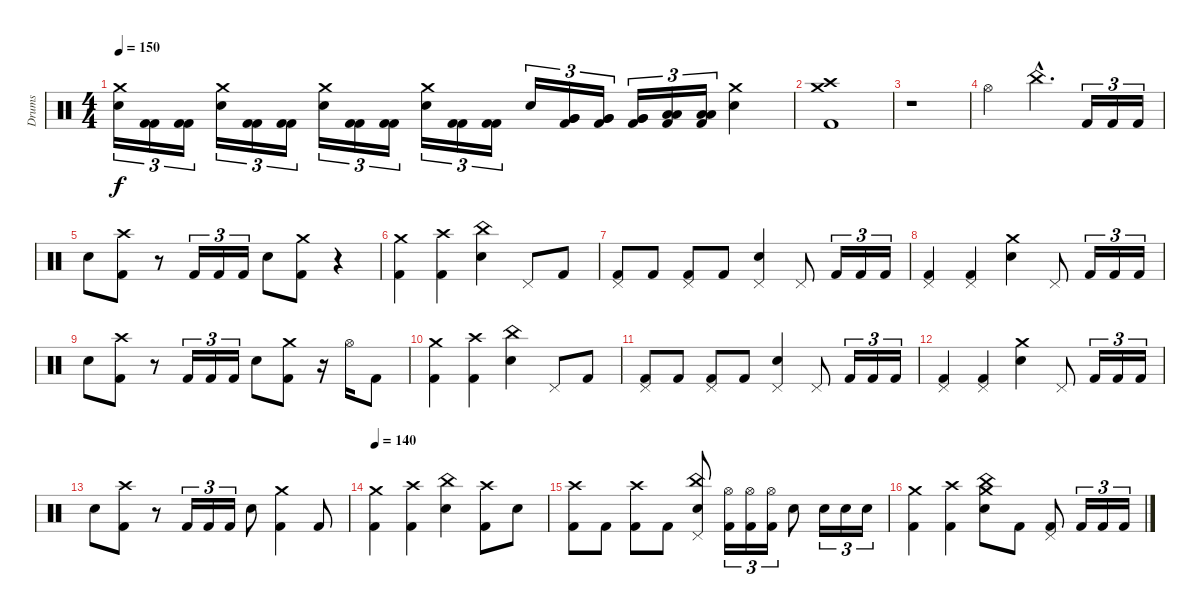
\track ("Drums" "Drums") {instrument percussion}
\staff {score}
\articulation defaults
\ts (4 4)
\tempo 150
\clef neutral
\ks c
("Crash medium (hit)" "Electric Snare (hit)").16{tu (3 2) dy f} ("Kick (hit) 2" "Kick (hit) 2").16{tu (3 2)} ("Kick (hit) 2" "Kick (hit) 2").16{tu (3 2)} ("Crash medium (hit)" "Electric Snare (hit)").16{tu (3 2)} ("Kick (hit) 2" "Kick (hit) 2").16{tu (3 2)} ("Kick (hit) 2" "Kick (hit) 2").16{tu (3 2)} ("Crash medium (hit)" "Electric Snare (hit)").16{tu (3 2)} ("Kick (hit) 2" "Kick (hit) 2").16{tu (3 2)} ("Kick (hit) 2" "Kick (hit) 2").16{tu (3 2)} ("Crash medium (hit)" "Electric Snare (hit)").16{tu (3 2)} ("Kick (hit) 2" "Kick (hit) 2").16{tu (3 2)} ("Kick (hit) 2" "Kick (hit) 2").16{tu (3 2)} "Electric Snare (hit)".16{tu (3 2)} ("Very Low Tom (hit)" "Very Low Tom (hit)" "Kick (hit) 2").16{tu (3 2)} ("Very Low Tom (hit)" "Very Low Tom (hit)" "Kick (hit) 2").16{tu (3 2)} ("Very Low Tom (hit)" "Very Low Tom (hit)" "Kick (hit) 2").16{tu (3 2)} ("Low Tom (hit)" "Low Tom (hit)" "Kick (hit) 2").16{tu (3 2)} ("Low Tom (hit)" "Low Tom (hit)" "Kick (hit) 2").16{tu (3 2)} ("Crash medium (hit)" "Electric Snare (hit)").4 |
("Crash high (hit)" "Crash medium (hit)" "Kick (hit) 2").1 |
r.1 |
"Hi-Hat (open)".2 "China (hit)"{hac}.4{d} "Kick (hit) 2".16{tu (3 2)} "Kick (hit) 2".16{tu (3 2)} "Kick (hit) 2".16{tu (3 2)} |
"Electric Snare (hit)".8 ("Crash high (hit)" "Kick (hit) 2").8 r.8 "Kick (hit) 2".16{tu (3 2)} "Kick (hit) 2".16{tu (3 2)} "Kick (hit) 2".16{tu (3 2)} "Electric Snare (hit)".8 ("Crash medium (hit)" "Kick (hit) 2").8 r.4 |
("Crash medium (hit)" "Kick (hit) 2").4 ("Crash high (hit)" "Kick (hit) 2").4 ("China (hit)" "Electric Snare (hit)").4 "Pedal Hi-Hat (hit)".8 "Kick (hit) 2".8 |
("Pedal Hi-Hat (hit)" "Kick (hit) 2").8 "Kick (hit) 2".8 ("Pedal Hi-Hat (hit)" "Kick (hit) 2").8 "Kick (hit) 2".8 ("Pedal Hi-Hat (hit)" "Electric Snare (hit)").4 "Pedal Hi-Hat (hit)".8 "Kick (hit) 2".16{tu (3 2)} "Kick (hit) 2".16{tu (3 2)} "Kick (hit) 2".16{tu (3 2)} |
("Pedal Hi-Hat (hit)" "Kick (hit) 2").4 ("Pedal Hi-Hat (hit)" "Kick (hit) 2").4 ("Crash medium (hit)" "Electric Snare (hit)").4 "Pedal Hi-Hat (hit)".8 "Kick (hit) 2".16{tu (3 2)} "Kick (hit) 2".16{tu (3 2)} "Kick (hit) 2".16{tu (3 2)} |
"Electric Snare (hit)".8 ("Crash high (hit)" "Kick (hit) 2").8 r.8 "Kick (hit) 2".16{tu (3 2)} "Kick (hit) 2".16{tu (3 2)} "Kick (hit) 2".16{tu (3 2)} "Electric Snare (hit)".8 ("Crash medium (hit)" "Kick (hit) 2").8 r.16 "Hi-Hat (open)".16 "Kick (hit) 2".8 |
("Crash medium (hit)" "Kick (hit) 2").4 ("Crash high (hit)" "Kick (hit) 2").4 ("China (hit)" "Electric Snare (hit)").4 "Pedal Hi-Hat (hit)".8 "Kick (hit) 2".8 |
("Pedal Hi-Hat (hit)" "Kick (hit) 2").8 "Kick (hit) 2".8 ("Pedal Hi-Hat (hit)" "Kick (hit) 2").8 "Kick (hit) 2".8 ("Pedal Hi-Hat (hit)" "Electric Snare (hit)").4 "Pedal Hi-Hat (hit)".8 "Kick (hit) 2".16{tu (3 2)} "Kick (hit) 2".16{tu (3 2)} "Kick (hit) 2".16{tu (3 2)} |
("Pedal Hi-Hat (hit)" "Kick (hit) 2").4 ("Pedal Hi-Hat (hit)" "Kick (hit) 2").4 ("Crash medium (hit)" "Electric Snare (hit)").4 "Pedal Hi-Hat (hit)".8 "Kick (hit) 2".16{tu (3 2)} "Kick (hit) 2".16{tu (3 2)} "Kick (hit) 2".16{tu (3 2)} |
"Electric Snare (hit)".8 ("Crash high (hit)" "Kick (hit) 2").8 r.8 "Kick (hit) 2".16{tu (3 2)} "Kick (hit) 2".16{tu (3 2)} "Kick (hit) 2".16{tu (3 2)} "Electric Snare (hit)".8 ("Crash medium (hit)" "Kick (hit) 2").4 "Kick (hit) 2".8 |
\tempo 140
("Crash medium (hit)" "Kick (hit) 2").4 ("Crash high (hit)" "Kick (hit) 2").4 ("China (hit)" "Electric Snare (hit)").4 ("Crash high (hit)" "Kick (hit) 2").8 "Electric Snare (hit)".8 |
("Crash high (hit)" "Kick (hit) 2").8 "Kick (hit) 2".8 ("Crash high (hit)" "Kick (hit) 2").8 "Kick (hit) 2".8 ("China (hit)" "Pedal Hi-Hat (hit)" "Electric Snare (hit)").8 ("Hi-Hat (open)" "Kick (hit) 2").16{tu (3 2)} ("Hi-Hat (open)" "Kick (hit) 2").16{tu (3 2)} ("Hi-Hat (open)" "Kick (hit) 2").16{tu (3 2)} "Electric Snare (hit)".8 "Electric Snare (hit)".16{tu (3 2)} "Electric Snare (hit)".16{tu (3 2)} "Electric Snare (hit)".16{tu (3 2)} |
("Crash medium (hit)" "Kick (hit) 2").4 ("Crash high (hit)" "Kick (hit) 2").4 ("Crash medium (hit)" "China (hit)" "Electric Snare (hit)").8 "Kick (hit) 2".8 ("Pedal Hi-Hat (hit)" "Kick (hit) 2").8 "Kick (hit) 2".16{tu (3 2)} "Kick (hit) 2".16{tu (3 2)} "Kick (hit) 2".16{tu (3 2)}
